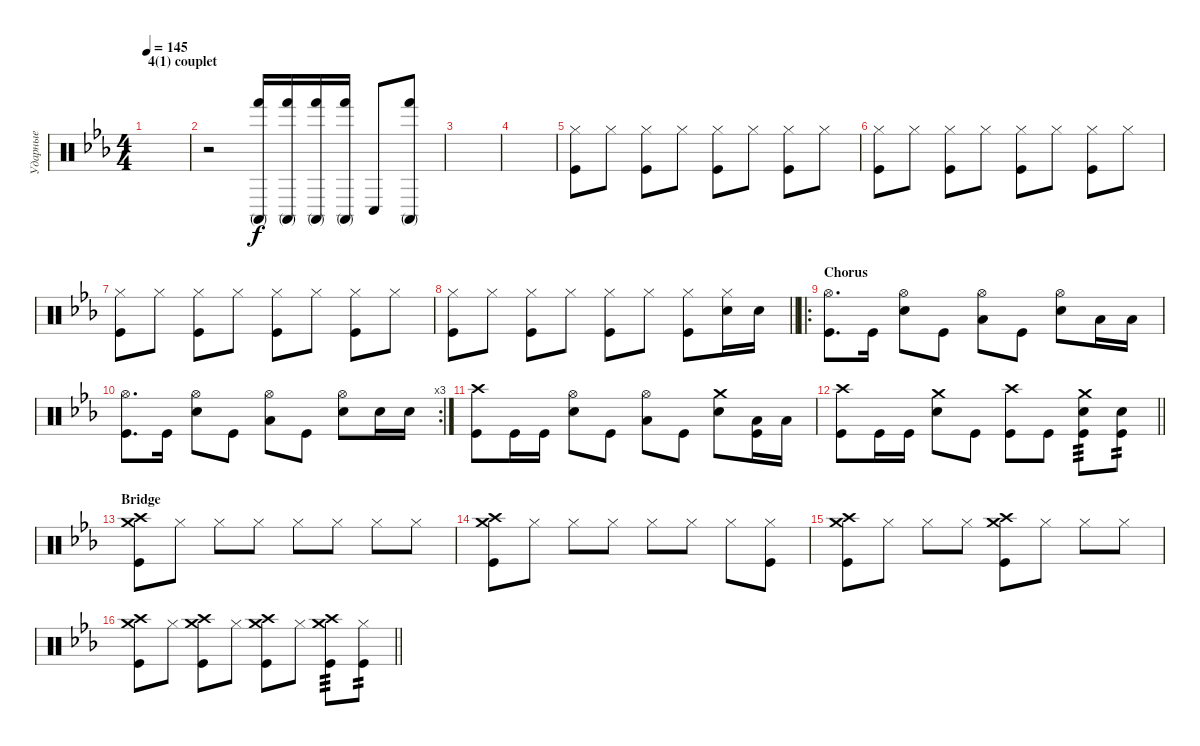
\track ("Ударные" "Ударные") {instrument percussion}
\staff {score}
\articulation defaults
\ts (4 4)
\section ("" "4(1) couplet")
\tempo 145
\clef neutral
\ks cminor
|
r.2 ("Hand (hit)" "Conga high (mute)").16 ("Hand (hit)" "Conga high (mute)").16 ("Hand (hit)" "Conga high (mute)").16 ("Hand (hit)" "Conga high (mute)").16 "Conga low (hit)".8 ("Hand (hit)" "Conga high (mute)").8 |
|
|
("Hi-Hat (closed)" "Kick (hit)").8{volume 1} "Hi-Hat (closed)".8{volume 10} ("Hi-Hat (closed)" "Kick (hit)").8 "Hi-Hat (closed)".8 ("Hi-Hat (closed)" "Kick (hit)").8 "Hi-Hat (closed)".8 ("Hi-Hat (closed)" "Kick (hit)").8 "Hi-Hat (closed)".8 |
("Hi-Hat (closed)" "Kick (hit)").8 "Hi-Hat (closed)".8 ("Hi-Hat (closed)" "Kick (hit)").8 "Hi-Hat (closed)".8 ("Hi-Hat (closed)" "Kick (hit)").8 "Hi-Hat (closed)".8 ("Hi-Hat (closed)" "Kick (hit)").8 "Hi-Hat (closed)".8 |
("Hi-Hat (closed)" "Kick (hit)").8 "Hi-Hat (closed)".8 ("Hi-Hat (closed)" "Kick (hit)").8 "Hi-Hat (closed)".8 ("Hi-Hat (closed)" "Kick (hit)").8 "Hi-Hat (closed)".8 ("Hi-Hat (closed)" "Kick (hit)").8 "Hi-Hat (closed)".8 |
\barLineRight lightlight
("Hi-Hat (closed)" "Kick (hit)").8 "Hi-Hat (closed)".8 ("Hi-Hat (closed)" "Kick (hit)").8 "Hi-Hat (closed)".8 ("Hi-Hat (closed)" "Kick (hit)").8 "Hi-Hat (closed)".8 ("Hi-Hat (closed)" "Kick (hit)").8 ("Hi-Hat (closed)" "Snare (hit) 2").16 "Snare (hit) 2".16 |
\ro
\section ("" "Chorus")
("Hi-Hat (open)" "Kick (hit)").8{d} "Kick (hit)".16 ("Hi-Hat (open)" "Snare (hit) 2").8 "Kick (hit)".8 ("Hi-Hat (open)" "Low Floor Tom (hit)").8 "Kick (hit)".8 ("Hi-Hat (open)" "Snare (hit) 2").8 "Low Floor Tom (hit)".16 "Low Floor Tom (hit)".16 |
\rc 3
("Hi-Hat (open)" "Kick (hit)").8{d} "Kick (hit)".16 ("Hi-Hat (open)" "Snare (hit) 2").8 "Kick (hit)".8 ("Hi-Hat (open)" "Low Floor Tom (hit)").8 "Kick (hit)".8 ("Hi-Hat (open)" "Snare (hit) 2").8 "Snare (hit) 2".16 "Snare (hit) 2".16 |
("Crash high (hit)" "Kick (hit)").8 "Kick (hit)".16 "Kick (hit)".16 ("Hi-Hat (open)" "Snare (hit) 2").8 "Kick (hit)".8 ("Hi-Hat (open)" "Low Floor Tom (hit)").8 "Kick (hit)".8 ("Crash medium (hit)" "Snare (hit) 2").8 ("Low Floor Tom (hit)" "Kick (hit)").16 "Low Floor Tom (hit)".16 |
\barLineRight lightlight
("Crash high (hit)" "Kick (hit)").8 "Kick (hit)".16 "Kick (hit)".16 ("Crash medium (hit)" "Snare (hit) 2").8 "Kick (hit)".8 ("Crash high (hit)" "Kick (hit)").8 "Kick (hit)".8 ("Crash medium (hit)" "Snare (hit) 2" "Kick (hit)").8{tp 3} ("Snare (hit) 2" "Kick (hit)").8{tp 2} |
\section ("" "Bridge")
("Crash medium (hit)" "Crash high (hit)" "Kick (hit)").8 "Hi-Hat (closed)".8 "Hi-Hat (closed)".8 "Hi-Hat (closed)".8 "Hi-Hat (closed)".8 "Hi-Hat (closed)".8 "Hi-Hat (closed)".8 "Hi-Hat (closed)".8 |
("Crash medium (hit)" "Crash high (hit)" "Kick (hit)").8 "Hi-Hat (closed)".8 "Hi-Hat (closed)".8 "Hi-Hat (closed)".8 "Hi-Hat (closed)".8 "Hi-Hat (closed)".8 "Hi-Hat (closed)".8 ("Hi-Hat (closed)" "Kick (hit)").8 |
("Crash medium (hit)" "Crash high (hit)" "Kick (hit)").8 "Hi-Hat (closed)".8 "Hi-Hat (closed)".8 "Hi-Hat (closed)".8 ("Crash medium (hit)" "Crash high (hit)" "Kick (hit)").8 "Hi-Hat (closed)".8 "Hi-Hat (closed)".8 "Hi-Hat (closed)".8 |
\barLineRight lightlight
("Crash medium (hit)" "Crash high (hit)" "Kick (hit)").8 "Hi-Hat (closed)".8 ("Crash medium (hit)" "Crash high (hit)" "Kick (hit)").8 "Hi-Hat (closed)".8 ("Crash medium (hit)" "Crash high (hit)" "Kick (hit)").8 "Hi-Hat (closed)".8 ("Crash medium (hit)" "Crash high (hit)" "Kick (hit)").8{tp 3} ("Hi-Hat (closed)" "Kick (hit)").8{tp 2}
